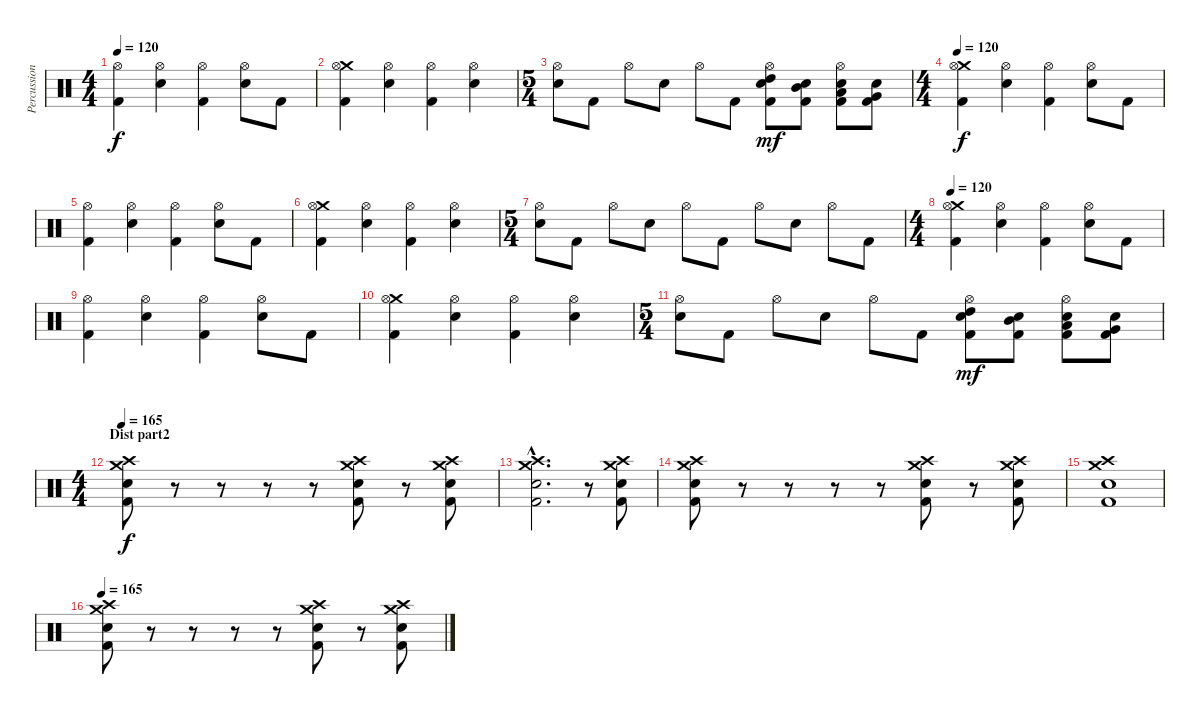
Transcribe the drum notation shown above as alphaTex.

\track ("Percussion" "Percussion") {instrument percussion}
\staff {score}
\articulation defaults
\ts (4 4)
\tempo 120
\clef neutral
\ks c
("Hi-Hat (open)" "Kick (hit) 2").4{dy f} ("Hi-Hat (open)" "Snare (hit) 2").4 ("Hi-Hat (open)" "Kick (hit) 2").4 ("Hi-Hat (open)" "Snare (hit) 2").8 "Kick (hit) 2".8 |
("Crash medium (hit)" "Hi-Hat (open)" "Kick (hit) 2").4 ("Hi-Hat (open)" "Snare (hit) 2").4 ("Hi-Hat (open)" "Kick (hit) 2").4 ("Hi-Hat (open)" "Snare (hit) 2").4 |
\ts (5 4)
("Hi-Hat (open)" "Snare (hit) 2").8 "Kick (hit) 2".8 "Hi-Hat (open)".8 "Snare (hit) 2".8 "Hi-Hat (open)".8 "Kick (hit) 2".8 ("Hi-Hat (open)" "High Tom (hit)" "Snare (hit) 2" "Kick (hit) 2").8{dy mf} ("Mid Tom (hit)" "Snare (hit) 2" "Kick (hit) 2").8 ("Hi-Hat (open)" "Low Tom (hit)" "Snare (hit) 2" "Kick (hit) 2").8 ("Very Low Tom (hit)" "Snare (hit) 2" "Kick (hit) 2").8 |
\ts (4 4)
\tempo 120
("Crash medium (hit)" "Hi-Hat (open)" "Kick (hit) 2").4{dy f} ("Hi-Hat (open)" "Snare (hit) 2").4 ("Hi-Hat (open)" "Kick (hit) 2").4 ("Hi-Hat (open)" "Snare (hit) 2").8 "Kick (hit) 2".8 |
("Hi-Hat (open)" "Kick (hit) 2").4 ("Hi-Hat (open)" "Snare (hit) 2").4 ("Hi-Hat (open)" "Kick (hit) 2").4 ("Hi-Hat (open)" "Snare (hit) 2").8 "Kick (hit) 2".8 |
("Crash medium (hit)" "Hi-Hat (open)" "Kick (hit) 2").4 ("Hi-Hat (open)" "Snare (hit) 2").4 ("Hi-Hat (open)" "Kick (hit) 2").4 ("Hi-Hat (open)" "Snare (hit) 2").4 |
\ts (5 4)
("Hi-Hat (open)" "Snare (hit) 2").8 "Kick (hit) 2".8 "Hi-Hat (open)".8 "Snare (hit) 2".8 "Hi-Hat (open)".8 "Kick (hit) 2".8 "Hi-Hat (open)".8 "Snare (hit) 2".8 "Hi-Hat (open)".8 "Kick (hit) 2".8 |
\ts (4 4)
\tempo 120
("Crash medium (hit)" "Hi-Hat (open)" "Kick (hit) 2").4 ("Hi-Hat (open)" "Snare (hit) 2").4 ("Hi-Hat (open)" "Kick (hit) 2").4 ("Hi-Hat (open)" "Snare (hit) 2").8 "Kick (hit) 2".8 |
("Hi-Hat (open)" "Kick (hit) 2").4 ("Hi-Hat (open)" "Snare (hit) 2").4 ("Hi-Hat (open)" "Kick (hit) 2").4 ("Hi-Hat (open)" "Snare (hit) 2").8 "Kick (hit) 2".8 |
("Crash medium (hit)" "Hi-Hat (open)" "Kick (hit) 2").4 ("Hi-Hat (open)" "Snare (hit) 2").4 ("Hi-Hat (open)" "Kick (hit) 2").4 ("Hi-Hat (open)" "Snare (hit) 2").4 |
\ts (5 4)
("Hi-Hat (open)" "Snare (hit) 2").8 "Kick (hit) 2".8 "Hi-Hat (open)".8 "Snare (hit) 2".8 "Hi-Hat (open)".8 "Kick (hit) 2".8 ("Hi-Hat (open)" "High Tom (hit)" "Snare (hit) 2" "Kick (hit) 2").8{dy mf} ("Mid Tom (hit)" "Snare (hit) 2" "Kick (hit) 2").8 ("Hi-Hat (open)" "Low Tom (hit)" "Snare (hit) 2" "Kick (hit) 2").8 ("Very Low Tom (hit)" "Snare (hit) 2" "Kick (hit) 2").8 |
\ts (4 4)
\section ("" "Dist part2")
\tempo 165
("Crash medium (hit)" "Crash high (hit)" "Snare (hit) 2" "Kick (hit) 2").8{dy f} r.8 r.8 r.8 r.8 ("Crash medium (hit)" "Crash high (hit)" "Snare (hit) 2" "Kick (hit) 2").8 r.8 ("Crash medium (hit)" "Crash high (hit)" "Snare (hit) 2" "Kick (hit) 2").8 |
("Crash medium (hit)"{hac} "Crash high (hit)"{hac} "Snare (hit) 2"{hac} "Kick (hit) 2"{hac}).2{d} r.8 ("Crash medium (hit)" "Crash high (hit)" "Snare (hit) 2" "Kick (hit) 2").8 |
("Crash medium (hit)" "Crash high (hit)" "Snare (hit) 2" "Kick (hit) 2").8 r.8 r.8 r.8 r.8 ("Crash medium (hit)" "Crash high (hit)" "Snare (hit) 2" "Kick (hit) 2").8 r.8 ("Crash medium (hit)" "Crash high (hit)" "Snare (hit) 2" "Kick (hit) 2").8 |
("Crash medium (hit)" "Crash high (hit)" "Snare (hit) 2" "Kick (hit) 2").1 |
\tempo 165
("Crash medium (hit)" "Crash high (hit)" "Snare (hit) 2" "Kick (hit) 2").8 r.8 r.8 r.8 r.8 ("Crash medium (hit)" "Crash high (hit)" "Snare (hit) 2" "Kick (hit) 2").8 r.8 ("Crash medium (hit)" "Crash high (hit)" "Snare (hit) 2" "Kick (hit) 2").8
